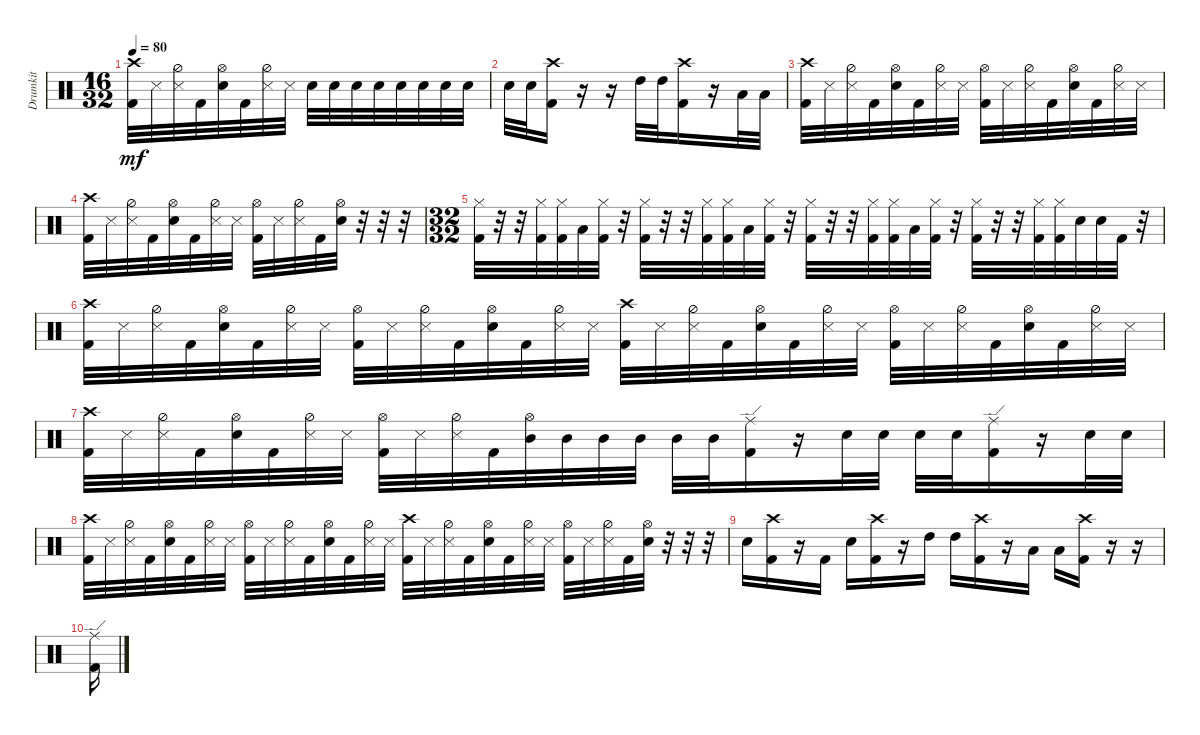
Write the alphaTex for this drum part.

\track ("Drumkit" "Drumkit") {instrument percussion}
\staff {score}
\articulation defaults
\ts (16 32)
\tempo 80
\clef neutral
\ks c
("Kick (hit) 2" "Crash high (hit)").32{dy mf} "Snare (side stick) 3".32 ("Snare (side stick) 3" "Hi-Hat (half)").32 "Kick (hit) 2".32 ("Snare (hit) 2" "Hi-Hat (open)").32 "Kick (hit) 2".32 ("Snare (side stick) 3" "Hi-Hat (half)").32 "Snare (side stick) 3".32 "Snare (hit) 2".32 "Snare (hit) 2".32 "Snare (hit) 2".32 "Snare (hit) 2".32 "Snare (hit) 2".32 "Snare (hit) 2".32 "Snare (hit) 2".32 "Snare (hit) 2".32 |
"Snare (hit) 2".32 "Snare (hit) 2".32 ("Kick (hit) 2" "Crash high (hit)").16 r.16 r.16 "High Tom (hit)".32 "High Tom (hit)".32 ("Kick (hit) 2" "Crash high (hit)").16 r.16 "Low Tom (hit)".32 "Low Tom (hit)".32 |
("Kick (hit) 2" "Crash high (hit)").32 "Snare (side stick) 3".32 ("Snare (side stick) 3" "Hi-Hat (half)").32 "Kick (hit) 2".32 ("Snare (hit) 2" "Hi-Hat (open)").32 "Kick (hit) 2".32 ("Snare (side stick) 3" "Hi-Hat (half)").32 "Snare (side stick) 3".32 ("Hi-Hat (open)" "Kick (hit) 2").32 "Snare (side stick) 3".32 ("Snare (side stick) 3" "Hi-Hat (half)").32 "Kick (hit) 2".32 ("Snare (hit) 2" "Hi-Hat (open)").32 "Kick (hit) 2".32 ("Hi-Hat (half)" "Snare (side stick) 3").32 "Snare (side stick) 3".32 |
("Kick (hit) 2" "Crash high (hit)").32 "Snare (side stick) 3".32 ("Snare (side stick) 3" "Hi-Hat (half)").32 "Kick (hit) 2".32 ("Snare (hit) 2" "Hi-Hat (open)").32 "Kick (hit) 2".32 ("Snare (side stick) 3" "Hi-Hat (half)").32 "Snare (side stick) 3".32 ("Hi-Hat (open)" "Kick (hit) 2").32 "Snare (side stick) 3".32 ("Snare (side stick) 3" "Hi-Hat (half)").32 "Kick (hit) 2".32 ("Snare (hit) 2" "Hi-Hat (open)").32 r.32 r.32 r.32 |
\ts (32 32)
("Hi-Hat (closed)" "Kick (hit) 2").32 r.32 r.32 ("Hi-Hat (closed)" "Kick (hit) 2").32 ("Kick (hit) 2" "Hi-Hat (closed)").32 "Low Tom (hit)".32 ("Kick (hit) 2" "Hi-Hat (closed)").32 r.32 ("Hi-Hat (closed)" "Kick (hit) 2").32 r.32 r.32 ("Hi-Hat (closed)" "Kick (hit) 2").32 ("Kick (hit) 2" "Hi-Hat (closed)").32 "Low Tom (hit)".32 ("Kick (hit) 2" "Hi-Hat (closed)").32 r.32 ("Hi-Hat (closed)" "Kick (hit) 2").32 r.32 r.32 ("Hi-Hat (closed)" "Kick (hit) 2").32 ("Kick (hit) 2" "Hi-Hat (closed)").32 "Low Tom (hit)".32 ("Kick (hit) 2" "Hi-Hat (closed)").32 r.32 ("Hi-Hat (closed)" "Kick (hit) 2").32 r.32 r.32 ("Hi-Hat (closed)" "Kick (hit) 2").32 ("Kick (hit) 2" "Hi-Hat (closed)").32 "Snare (hit) 2".32 "Snare (hit) 2".32 "Kick (hit) 2".32 r.32 |
("Kick (hit) 2" "Crash high (hit)").32 "Snare (side stick) 3".32 ("Snare (side stick) 3" "Hi-Hat (half)").32 "Kick (hit) 2".32 ("Snare (hit) 2" "Hi-Hat (open)").32 "Kick (hit) 2".32 ("Snare (side stick) 3" "Hi-Hat (half)").32 "Snare (side stick) 3".32 ("Hi-Hat (open)" "Kick (hit) 2").32 "Snare (side stick) 3".32 ("Snare (side stick) 3" "Hi-Hat (half)").32 "Kick (hit) 2".32 ("Snare (hit) 2" "Hi-Hat (open)").32 "Kick (hit) 2".32 ("Hi-Hat (half)" "Snare (side stick) 3").32 "Snare (side stick) 3".32 ("Kick (hit) 2" "Crash high (hit)").32 "Snare (side stick) 3".32 ("Snare (side stick) 3" "Hi-Hat (half)").32 "Kick (hit) 2".32 ("Snare (hit) 2" "Hi-Hat (open)").32 "Kick (hit) 2".32 ("Snare (side stick) 3" "Hi-Hat (half)").32 "Snare (side stick) 3".32 ("Hi-Hat (open)" "Kick (hit) 2").32 "Snare (side stick) 3".32 ("Snare (side stick) 3" "Hi-Hat (half)").32 "Kick (hit) 2".32 ("Snare (hit) 2" "Hi-Hat (open)").32 "Kick (hit) 2".32 ("Hi-Hat (half)" "Snare (side stick) 3").32 "Snare (side stick) 3".32 |
("Kick (hit) 2" "Crash high (hit)").32 "Snare (side stick) 3".32 ("Snare (side stick) 3" "Hi-Hat (half)").32 "Kick (hit) 2".32 ("Snare (hit) 2" "Hi-Hat (open)").32 "Kick (hit) 2".32 ("Snare (side stick) 3" "Hi-Hat (half)").32 "Snare (side stick) 3".32 ("Hi-Hat (open)" "Kick (hit) 2").32 "Snare (side stick) 3".32 ("Snare (side stick) 3" "Hi-Hat (half)").32 "Kick (hit) 2".32 ("Hi-Hat (open)" "Mid Tom (hit)").32 "Mid Tom (hit)".32 "Mid Tom (hit)".32 "Mid Tom (hit)".32 "Mid Tom (hit)".32 "Mid Tom (hit)".32 ("Kick (hit) 2" "Ride (edge)").16 r.16 "Snare (hit) 2".32 "Snare (hit) 2".32 "Snare (hit) 2".32 "Snare (hit) 2".32 ("Ride (edge)" "Kick (hit) 2").16 r.16 "Snare (hit) 2".32 "Snare (hit) 2".32 |
("Kick (hit) 2" "Crash high (hit)").32 "Snare (side stick) 3".32 ("Snare (side stick) 3" "Hi-Hat (half)").32 "Kick (hit) 2".32 ("Snare (hit) 2" "Hi-Hat (open)").32 "Kick (hit) 2".32 ("Snare (side stick) 3" "Hi-Hat (half)").32 "Snare (side stick) 3".32 ("Hi-Hat (open)" "Kick (hit) 2").32 "Snare (side stick) 3".32 ("Snare (side stick) 3" "Hi-Hat (half)").32 "Kick (hit) 2".32 ("Snare (hit) 2" "Hi-Hat (open)").32 "Kick (hit) 2".32 ("Hi-Hat (half)" "Snare (side stick) 3").32 "Snare (side stick) 3".32 ("Kick (hit) 2" "Crash high (hit)").32 "Snare (side stick) 3".32 ("Snare (side stick) 3" "Hi-Hat (half)").32 "Kick (hit) 2".32 ("Snare (hit) 2" "Hi-Hat (open)").32 "Kick (hit) 2".32 ("Snare (side stick) 3" "Hi-Hat (half)").32 "Snare (side stick) 3".32 ("Hi-Hat (open)" "Kick (hit) 2").32 "Snare (side stick) 3".32 ("Snare (side stick) 3" "Hi-Hat (half)").32 "Kick (hit) 2".32 ("Snare (hit) 2" "Hi-Hat (open)").32 r.32 r.32 r.32 |
"Snare (hit) 2".16 ("Crash high (hit)" "Kick (hit) 2").16 r.16 "Kick (hit) 2".16 "Snare (hit) 2".16 ("Kick (hit) 2" "Crash high (hit)").16 r.16 "High Tom (hit)".16 "High Tom (hit)".16 ("Kick (hit) 2" "Crash high (hit)").16 r.16 "Low Tom (hit)".16 "Low Tom (hit)".16 ("Kick (hit) 2" "Crash high (hit)").16 r.16 r.16 |
("Ride (edge)" "Kick (hit) 2").16
